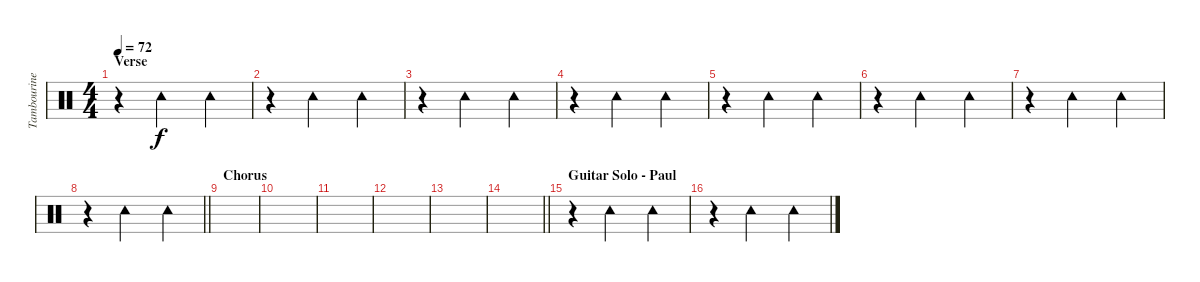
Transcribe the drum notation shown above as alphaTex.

\track ("Tambourine" "Tambourine") {instrument percussion}
\staff {score}
\articulation defaults
\ts (4 4)
\section ("" "Verse")
\tempo 72
\clef neutral
\ks c
r.4{dy f} "Tambourine (hit)".2 "Tambourine (hit)".4 |
r.4 "Tambourine (hit)".2 "Tambourine (hit)".4 |
r.4 "Tambourine (hit)".2 "Tambourine (hit)".4 |
r.4 "Tambourine (hit)".2 "Tambourine (hit)".4 |
r.4 "Tambourine (hit)".2 "Tambourine (hit)".4 |
r.4 "Tambourine (hit)".2 "Tambourine (hit)".4 |
r.4 "Tambourine (hit)".2 "Tambourine (hit)".4 |
\barLineRight lightlight
r.4 "Tambourine (hit)".2 "Tambourine (hit)".4 |
\section ("" "Chorus")
|
|
|
|
|
\barLineRight lightlight
|
\section ("" "Guitar Solo - Paul")
r.4 "Tambourine (hit)".2 "Tambourine (hit)".4 |
r.4 "Tambourine (hit)".2 "Tambourine (hit)".4
